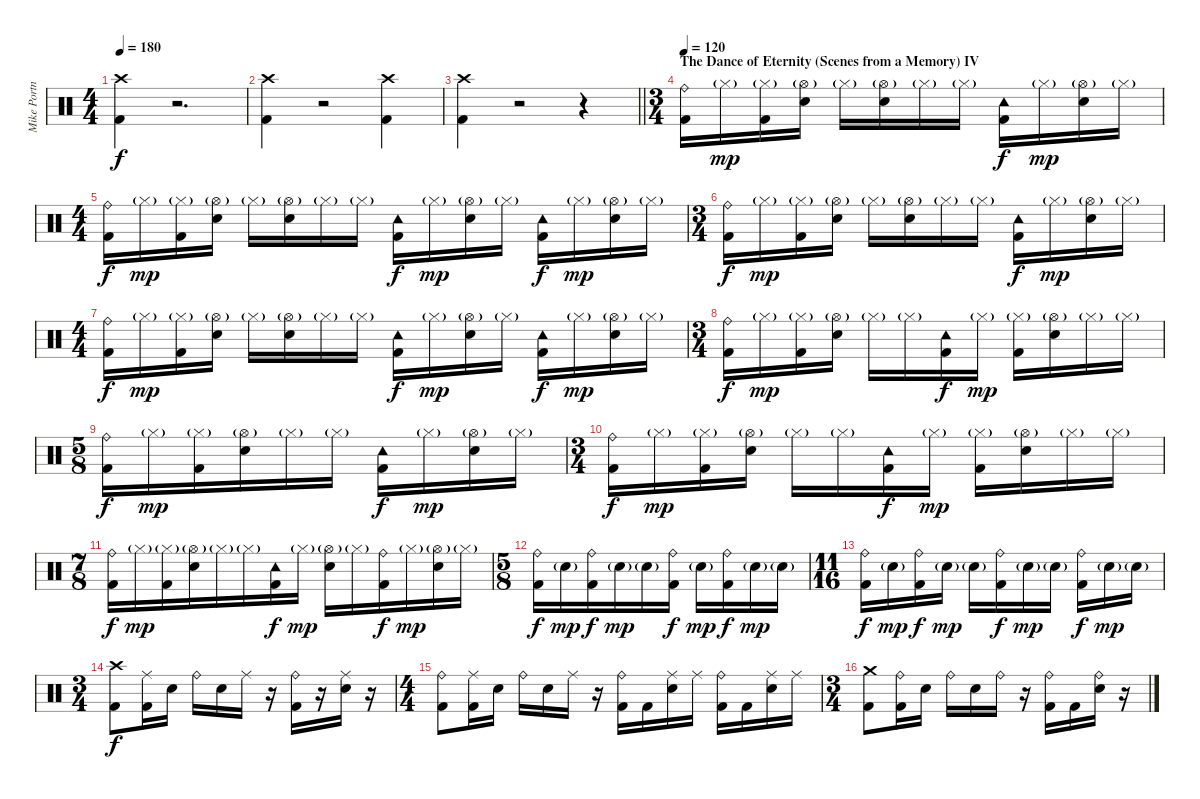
\track ("Mike Portnoy Drums" "Mike Portn") {instrument percussion}
\staff {score}
\articulation defaults
\ts (4 4)
\tempo 180
\clef neutral
\ks c
("Crash high (hit)" "Kick (hit) 2").4{dy f} r.2{d} |
("Crash high (hit)" "Kick (hit) 2").4 r.2 ("Kick (hit) 2" "Crash high (hit)").4 |
\barLineRight lightlight
("Crash high (hit)" "Kick (hit) 2").4 r.2 r.4 |
\ts (3 4)
\section ("" "The Dance of Eternity (Scenes from a Memory) IV")
\tempo 120
("Ride (bell)" "Kick (hit) 2").16 "Hi-Hat (closed)"{g}.16{dy mp} ("Hi-Hat (closed)"{g} "Kick (hit) 2").16 ("Hi-Hat (open)"{g} "Snare (hit) 2").16 "Hi-Hat (closed)"{g}.16 ("Hi-Hat (open)"{g} "Snare (hit) 2").16 "Hi-Hat (closed)"{g}.16 "Hi-Hat (closed)"{g}.16 ("Tambourine (hit)" "Kick (hit) 2").16{dy f} "Hi-Hat (closed)"{g}.16{dy mp} ("Hi-Hat (open)"{g} "Snare (hit) 2").16 "Hi-Hat (closed)"{g}.16 |
\ts (4 4)
("Ride (bell)" "Kick (hit) 2").16{dy f} "Hi-Hat (closed)"{g}.16{dy mp} ("Hi-Hat (closed)"{g} "Kick (hit) 2").16 ("Hi-Hat (open)"{g} "Snare (hit) 2").16 "Hi-Hat (closed)"{g}.16 ("Hi-Hat (open)"{g} "Snare (hit) 2").16 "Hi-Hat (closed)"{g}.16 "Hi-Hat (closed)"{g}.16 ("Tambourine (hit)" "Kick (hit) 2").16{dy f} "Hi-Hat (closed)"{g}.16{dy mp} ("Hi-Hat (open)"{g} "Snare (hit) 2").16 "Hi-Hat (closed)"{g}.16 ("Tambourine (hit)" "Kick (hit) 2").16{dy f} "Hi-Hat (closed)"{g}.16{dy mp} ("Hi-Hat (open)"{g} "Snare (hit) 2").16 "Hi-Hat (closed)"{g}.16 |
\ts (3 4)
("Ride (bell)" "Kick (hit) 2").16{dy f} "Hi-Hat (closed)"{g}.16{dy mp} ("Hi-Hat (closed)"{g} "Kick (hit) 2").16 ("Hi-Hat (open)"{g} "Snare (hit) 2").16 "Hi-Hat (closed)"{g}.16 ("Hi-Hat (open)"{g} "Snare (hit) 2").16 "Hi-Hat (closed)"{g}.16 "Hi-Hat (closed)"{g}.16 ("Tambourine (hit)" "Kick (hit) 2").16{dy f} "Hi-Hat (closed)"{g}.16{dy mp} ("Hi-Hat (open)"{g} "Snare (hit) 2").16 "Hi-Hat (closed)"{g}.16 |
\ts (4 4)
("Ride (bell)" "Kick (hit) 2").16{dy f} "Hi-Hat (closed)"{g}.16{dy mp} ("Hi-Hat (closed)"{g} "Kick (hit) 2").16 ("Hi-Hat (open)"{g} "Snare (hit) 2").16 "Hi-Hat (closed)"{g}.16 ("Hi-Hat (open)"{g} "Snare (hit) 2").16 "Hi-Hat (closed)"{g}.16 "Hi-Hat (closed)"{g}.16 ("Tambourine (hit)" "Kick (hit) 2").16{dy f} "Hi-Hat (closed)"{g}.16{dy mp} ("Hi-Hat (open)"{g} "Snare (hit) 2").16 "Hi-Hat (closed)"{g}.16 ("Tambourine (hit)" "Kick (hit) 2").16{dy f} "Hi-Hat (closed)"{g}.16{dy mp} ("Hi-Hat (open)"{g} "Snare (hit) 2").16 "Hi-Hat (closed)"{g}.16 |
\ts (3 4)
("Ride (bell)" "Kick (hit) 2").16{dy f} "Hi-Hat (closed)"{g}.16{dy mp} ("Hi-Hat (closed)"{g} "Kick (hit) 2").16 ("Hi-Hat (open)"{g} "Snare (hit) 2").16 "Hi-Hat (closed)"{g}.16 "Hi-Hat (closed)"{g}.16 ("Tambourine (hit)" "Kick (hit) 2").16{dy f} "Hi-Hat (closed)"{g}.16{dy mp} ("Hi-Hat (closed)"{g} "Kick (hit) 2").16 ("Hi-Hat (open)"{g} "Snare (hit) 2").16 "Hi-Hat (closed)"{g}.16 "Hi-Hat (closed)"{g}.16 |
\ts (5 8)
("Ride (bell)" "Kick (hit) 2").16{dy f} "Hi-Hat (closed)"{g}.16{dy mp} ("Hi-Hat (closed)"{g} "Kick (hit) 2").16 ("Hi-Hat (open)"{g} "Snare (hit) 2").16 "Hi-Hat (closed)"{g}.16 "Hi-Hat (closed)"{g}.16 ("Tambourine (hit)" "Kick (hit) 2").16{dy f} "Hi-Hat (closed)"{g}.16{dy mp} ("Hi-Hat (open)"{g} "Snare (hit) 2").16 "Hi-Hat (closed)"{g}.16 |
\ts (3 4)
("Ride (bell)" "Kick (hit) 2").16{dy f} "Hi-Hat (closed)"{g}.16{dy mp} ("Hi-Hat (closed)"{g} "Kick (hit) 2").16 ("Hi-Hat (open)"{g} "Snare (hit) 2").16 "Hi-Hat (closed)"{g}.16 "Hi-Hat (closed)"{g}.16 ("Tambourine (hit)" "Kick (hit) 2").16{dy f} "Hi-Hat (closed)"{g}.16{dy mp} ("Hi-Hat (closed)"{g} "Kick (hit) 2").16 ("Hi-Hat (open)"{g} "Snare (hit) 2").16 "Hi-Hat (closed)"{g}.16 "Hi-Hat (closed)"{g}.16 |
\ts (7 8)
("Ride (bell)" "Kick (hit) 2").16{dy f} "Hi-Hat (closed)"{g}.16{dy mp} ("Hi-Hat (closed)"{g} "Kick (hit) 2").16 ("Hi-Hat (open)"{g} "Snare (hit) 2").16 "Hi-Hat (closed)"{g}.16 "Hi-Hat (closed)"{g}.16 ("Tambourine (hit)" "Kick (hit) 2").16{dy f} "Hi-Hat (closed)"{g}.16{dy mp} ("Hi-Hat (open)"{g} "Snare (hit) 2").16 "Hi-Hat (closed)"{g}.16 ("Ride (bell)" "Kick (hit) 2").16{dy f} "Hi-Hat (closed)"{g}.16{dy mp} ("Hi-Hat (open)"{g} "Snare (hit) 2").16 "Hi-Hat (closed)"{g}.16 |
\ts (5 8)
("Ride (bell)" "Kick (hit) 2").16{dy f} "Snare (hit) 2"{g}.16{dy mp} ("Ride (bell)" "Kick (hit) 2").16{dy f} "Snare (hit) 2"{g}.16{dy mp} "Snare (hit) 2"{g}.16 ("Ride (bell)" "Kick (hit) 2").16{dy f} "Snare (hit) 2"{g}.16{dy mp} ("Ride (bell)" "Kick (hit) 2").16{dy f} "Snare (hit) 2"{g}.16{dy mp} "Snare (hit) 2"{g}.16 |
\ts (11 16)
("Ride (bell)" "Kick (hit) 2").16{dy f} "Snare (hit) 2"{g}.16{dy mp} ("Ride (bell)" "Kick (hit) 2").16{dy f} "Snare (hit) 2"{g}.16{dy mp} "Snare (hit) 2"{g}.16 ("Ride (bell)" "Kick (hit) 2").16{dy f} "Snare (hit) 2"{g}.16{dy mp} "Snare (hit) 2"{g}.16 ("Ride (bell)" "Kick (hit) 2").16{dy f} "Snare (hit) 2"{g}.16{dy mp} "Snare (hit) 2"{g}.16 |
\ts (3 4)
("Crash high (hit)" "Kick (hit) 2").8{dy f} ("Ride (middle)" "Kick (hit) 2").16 "Snare (hit) 2".16 "Ride (bell)".16 "Snare (hit) 2".16 "Ride (middle)".16 r.16 ("Ride (bell)" "Kick (hit) 2").16 r.16 ("Ride (middle)" "Snare (hit) 2").16 r.16 |
\ts (4 4)
("Ride (bell)" "Kick (hit) 2").8 ("Ride (middle)" "Kick (hit) 2").16 "Snare (hit) 2".16 "Ride (bell)".16 "Snare (hit) 2".16 "Ride (middle)".16 r.16 ("Ride (bell)" "Kick (hit) 2").16 "Kick (hit) 2".16 ("Ride (middle)" "Snare (hit) 2").16 "Ride (middle)".16 ("Ride (bell)" "Kick (hit) 2").16 "Kick (hit) 2".16 ("Ride (middle)" "Snare (hit) 2").16 "Ride (middle)".16 |
\ts (3 4)
("Crash medium (hit)" "Kick (hit) 2").8 ("Ride (bell)" "Kick (hit) 2").16 "Snare (hit) 2".16 "Ride (bell)".16 "Snare (hit) 2".16 "Ride (bell)".16 r.16 ("Ride (bell)" "Kick (hit) 2").16 "Kick (hit) 2".16 ("Ride (bell)" "Snare (hit) 2").16 r.16
